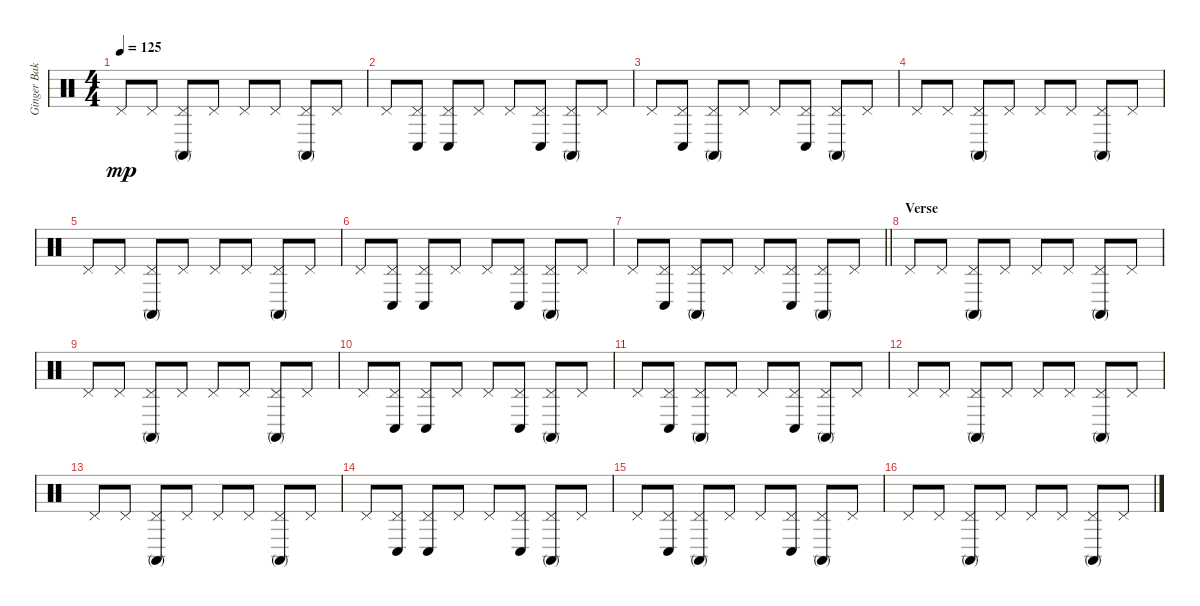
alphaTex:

\track ("Ginger Baker (Drums)" "Ginger Bak") {instrument percussion}
\staff {score}
\articulation defaults
\ts (4 4)
\tempo 125
\clef neutral
\ks c "Pedal Hi-Hat (hit)".8{dy mp} "Pedal Hi-Hat (hit)".8
("Pedal Hi-Hat (hit)" "Conga high (mute)").8 "Pedal Hi-Hat (hit)".8 "Pedal Hi-Hat (hit)".8 "Pedal Hi-Hat (hit)".8 ("Pedal Hi-Hat (hit)" "Conga high (mute)").8 "Pedal Hi-Hat (hit)".8 |
"Pedal Hi-Hat (hit)".8 ("Pedal Hi-Hat (hit)" "Conga low (hit)").8 ("Pedal Hi-Hat (hit)" "Conga low (hit)").8 "Pedal Hi-Hat (hit)".8 "Pedal Hi-Hat (hit)".8 ("Pedal Hi-Hat (hit)" "Conga low (hit)").8 ("Pedal Hi-Hat (hit)" "Conga high (mute)").8 "Pedal Hi-Hat (hit)".8 |
"Pedal Hi-Hat (hit)".8 ("Pedal Hi-Hat (hit)" "Conga low (hit)").8 ("Pedal Hi-Hat (hit)" "Conga high (mute)").8 "Pedal Hi-Hat (hit)".8 "Pedal Hi-Hat (hit)".8 ("Pedal Hi-Hat (hit)" "Conga low (hit)").8 ("Pedal Hi-Hat (hit)" "Conga high (mute)").8 "Pedal Hi-Hat (hit)".8 |
"Pedal Hi-Hat (hit)".8 "Pedal Hi-Hat (hit)".8 ("Pedal Hi-Hat (hit)" "Conga high (mute)").8 "Pedal Hi-Hat (hit)".8 "Pedal Hi-Hat (hit)".8 "Pedal Hi-Hat (hit)".8 ("Pedal Hi-Hat (hit)" "Conga high (mute)").8 "Pedal Hi-Hat (hit)".8 |
"Pedal Hi-Hat (hit)".8 "Pedal Hi-Hat (hit)".8 ("Pedal Hi-Hat (hit)" "Conga high (mute)").8 "Pedal Hi-Hat (hit)".8 "Pedal Hi-Hat (hit)".8 "Pedal Hi-Hat (hit)".8 ("Pedal Hi-Hat (hit)" "Conga high (mute)").8 "Pedal Hi-Hat (hit)".8 |
"Pedal Hi-Hat (hit)".8 ("Pedal Hi-Hat (hit)" "Conga low (hit)").8 ("Pedal Hi-Hat (hit)" "Conga low (hit)").8 "Pedal Hi-Hat (hit)".8 "Pedal Hi-Hat (hit)".8 ("Pedal Hi-Hat (hit)" "Conga low (hit)").8 ("Pedal Hi-Hat (hit)" "Conga high (mute)").8 "Pedal Hi-Hat (hit)".8 |
\barLineRight lightlight "Pedal Hi-Hat (hit)".8
("Pedal Hi-Hat (hit)" "Conga low (hit)").8 ("Pedal Hi-Hat (hit)" "Conga high (mute)").8 "Pedal Hi-Hat (hit)".8 "Pedal Hi-Hat (hit)".8 ("Pedal Hi-Hat (hit)" "Conga low (hit)").8 ("Pedal Hi-Hat (hit)" "Conga high (mute)").8 "Pedal Hi-Hat (hit)".8 |
\section ("" "Verse")
"Pedal Hi-Hat (hit)".8 "Pedal Hi-Hat (hit)".8 ("Pedal Hi-Hat (hit)" "Conga high (mute)").8 "Pedal Hi-Hat (hit)".8 "Pedal Hi-Hat (hit)".8 "Pedal Hi-Hat (hit)".8 ("Pedal Hi-Hat (hit)" "Conga high (mute)").8 "Pedal Hi-Hat (hit)".8 |
"Pedal Hi-Hat (hit)".8 "Pedal Hi-Hat (hit)".8 ("Pedal Hi-Hat (hit)" "Conga high (mute)").8 "Pedal Hi-Hat (hit)".8 "Pedal Hi-Hat (hit)".8 "Pedal Hi-Hat (hit)".8 ("Pedal Hi-Hat (hit)" "Conga high (mute)").8 "Pedal Hi-Hat (hit)".8 |
"Pedal Hi-Hat (hit)".8 ("Pedal Hi-Hat (hit)" "Conga low (hit)").8 ("Pedal Hi-Hat (hit)" "Conga low (hit)").8 "Pedal Hi-Hat (hit)".8 "Pedal Hi-Hat (hit)".8 ("Pedal Hi-Hat (hit)" "Conga low (hit)").8 ("Pedal Hi-Hat (hit)" "Conga high (mute)").8 "Pedal Hi-Hat (hit)".8 |
"Pedal Hi-Hat (hit)".8 ("Pedal Hi-Hat (hit)" "Conga low (hit)").8 ("Pedal Hi-Hat (hit)" "Conga high (mute)").8 "Pedal Hi-Hat (hit)".8 "Pedal Hi-Hat (hit)".8 ("Pedal Hi-Hat (hit)" "Conga low (hit)").8 ("Pedal Hi-Hat (hit)" "Conga high (mute)").8 "Pedal Hi-Hat (hit)".8 |
"Pedal Hi-Hat (hit)".8 "Pedal Hi-Hat (hit)".8 ("Pedal Hi-Hat (hit)" "Conga high (mute)").8 "Pedal Hi-Hat (hit)".8 "Pedal Hi-Hat (hit)".8 "Pedal Hi-Hat (hit)".8 ("Pedal Hi-Hat (hit)" "Conga high (mute)").8 "Pedal Hi-Hat (hit)".8 |
"Pedal Hi-Hat (hit)".8 "Pedal Hi-Hat (hit)".8 ("Pedal Hi-Hat (hit)" "Conga high (mute)").8 "Pedal Hi-Hat (hit)".8 "Pedal Hi-Hat (hit)".8 "Pedal Hi-Hat (hit)".8 ("Pedal Hi-Hat (hit)" "Conga high (mute)").8 "Pedal Hi-Hat (hit)".8 |
"Pedal Hi-Hat (hit)".8 ("Pedal Hi-Hat (hit)" "Conga low (hit)").8 ("Pedal Hi-Hat (hit)" "Conga low (hit)").8 "Pedal Hi-Hat (hit)".8 "Pedal Hi-Hat (hit)".8 ("Pedal Hi-Hat (hit)" "Conga low (hit)").8 ("Pedal Hi-Hat (hit)" "Conga high (mute)").8 "Pedal Hi-Hat (hit)".8 |
"Pedal Hi-Hat (hit)".8 ("Pedal Hi-Hat (hit)" "Conga low (hit)").8 ("Pedal Hi-Hat (hit)" "Conga high (mute)").8 "Pedal Hi-Hat (hit)".8 "Pedal Hi-Hat (hit)".8 ("Pedal Hi-Hat (hit)" "Conga low (hit)").8 ("Pedal Hi-Hat (hit)" "Conga high (mute)").8 "Pedal Hi-Hat (hit)".8 |
"Pedal Hi-Hat (hit)".8 "Pedal Hi-Hat (hit)".8 ("Pedal Hi-Hat (hit)" "Conga high (mute)").8 "Pedal Hi-Hat (hit)".8 "Pedal Hi-Hat (hit)".8 "Pedal Hi-Hat (hit)".8 ("Pedal Hi-Hat (hit)" "Conga high (mute)").8 "Pedal Hi-Hat (hit)".8
